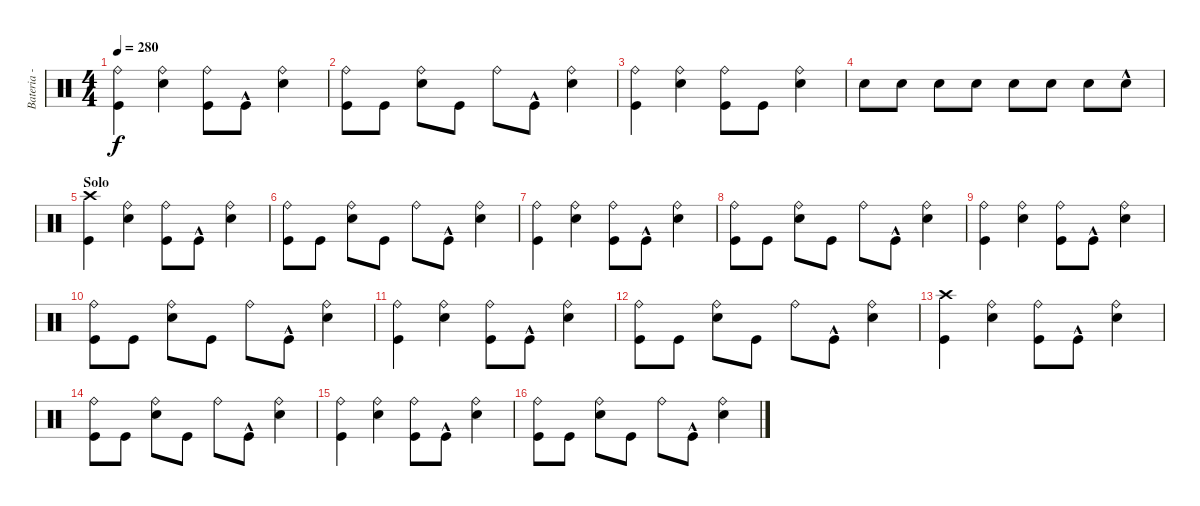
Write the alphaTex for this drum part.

\track ("Bateria - Larzon" "Bateria - ") {instrument percussion}
\staff {score}
\articulation defaults
\ts (4 4)
\tempo 280
\clef neutral
\ks c
("Kick (hit)" "Ride (bell)").4{dy f} ("Snare (hit) 2" "Ride (bell)").4 ("Kick (hit)" "Ride (bell)").8 "Kick (hit)"{hac}.8 ("Snare (hit) 2" "Ride (bell)").4 |
("Kick (hit)" "Ride (bell)").8 "Kick (hit)".8 ("Snare (hit) 2" "Ride (bell)").8 "Kick (hit)".8 "Ride (bell)".8 "Kick (hit)"{hac}.8 ("Snare (hit) 2" "Ride (bell)").4 |
("Kick (hit)" "Ride (bell)").4 ("Snare (hit) 2" "Ride (bell)").4 ("Kick (hit)" "Ride (bell)").8 "Kick (hit)".8 ("Snare (hit) 2" "Ride (bell)").4 |
"Snare (hit) 2".8 "Snare (hit) 2".8 "Snare (hit) 2".8 "Snare (hit) 2".8 "Snare (hit) 2".8 "Snare (hit) 2".8 "Snare (hit) 2".8 "Snare (hit) 2"{hac}.8 |
\section ("" "Solo")
("Kick (hit)" "Crash high (hit)").4 ("Snare (hit) 2" "Ride (bell)").4 ("Kick (hit)" "Ride (bell)").8 "Kick (hit)"{hac}.8 ("Snare (hit) 2" "Ride (bell)").4 |
("Kick (hit)" "Ride (bell)").8 "Kick (hit)".8 ("Snare (hit) 2" "Ride (bell)").8 "Kick (hit)".8 "Ride (bell)".8 "Kick (hit)"{hac}.8 ("Snare (hit) 2" "Ride (bell)").4 |
("Kick (hit)" "Ride (bell)").4 ("Snare (hit) 2" "Ride (bell)").4 ("Kick (hit)" "Ride (bell)").8 "Kick (hit)"{hac}.8 ("Snare (hit) 2" "Ride (bell)").4 |
("Kick (hit)" "Ride (bell)").8 "Kick (hit)".8 ("Snare (hit) 2" "Ride (bell)").8 "Kick (hit)".8 "Ride (bell)".8 "Kick (hit)"{hac}.8 ("Snare (hit) 2" "Ride (bell)").4 |
("Kick (hit)" "Ride (bell)").4 ("Snare (hit) 2" "Ride (bell)").4 ("Kick (hit)" "Ride (bell)").8 "Kick (hit)"{hac}.8 ("Snare (hit) 2" "Ride (bell)").4 |
("Kick (hit)" "Ride (bell)").8 "Kick (hit)".8 ("Snare (hit) 2" "Ride (bell)").8 "Kick (hit)".8 "Ride (bell)".8 "Kick (hit)"{hac}.8 ("Snare (hit) 2" "Ride (bell)").4 |
("Kick (hit)" "Ride (bell)").4 ("Snare (hit) 2" "Ride (bell)").4 ("Kick (hit)" "Ride (bell)").8 "Kick (hit)"{hac}.8 ("Snare (hit) 2" "Ride (bell)").4 |
("Kick (hit)" "Ride (bell)").8 "Kick (hit)".8 ("Snare (hit) 2" "Ride (bell)").8 "Kick (hit)".8 "Ride (bell)".8 "Kick (hit)"{hac}.8 ("Snare (hit) 2" "Ride (bell)").4 |
("Kick (hit)" "Crash high (hit)").4 ("Snare (hit) 2" "Ride (bell)").4 ("Kick (hit)" "Ride (bell)").8 "Kick (hit)"{hac}.8 ("Snare (hit) 2" "Ride (bell)").4 |
("Kick (hit)" "Ride (bell)").8 "Kick (hit)".8 ("Snare (hit) 2" "Ride (bell)").8 "Kick (hit)".8 "Ride (bell)".8 "Kick (hit)"{hac}.8 ("Snare (hit) 2" "Ride (bell)").4 |
("Kick (hit)" "Ride (bell)").4 ("Snare (hit) 2" "Ride (bell)").4 ("Kick (hit)" "Ride (bell)").8 "Kick (hit)"{hac}.8 ("Snare (hit) 2" "Ride (bell)").4 |
("Kick (hit)" "Ride (bell)").8 "Kick (hit)".8 ("Snare (hit) 2" "Ride (bell)").8 "Kick (hit)".8 "Ride (bell)".8 "Kick (hit)"{hac}.8 ("Snare (hit) 2" "Ride (bell)").4
